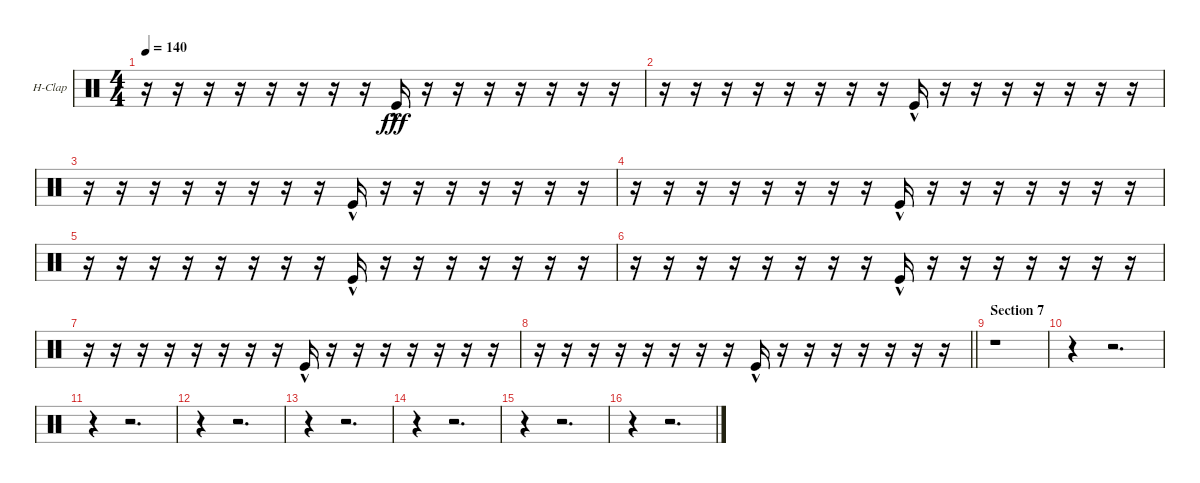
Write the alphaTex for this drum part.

\bracketExtendMode groupsimilarinstruments
\firstSystemTrackNameOrientation horizontal
\otherSystemsTrackNameOrientation horizontal
\track ("Hand Clap" "H-Clap") {instrument percussion}
\staff {score}
\articulation defaults
\ts (4 4)
\tempo 140
\clef neutral
\ks c
r.16{dy fff} r.16 r.16 r.16 r.16 r.16 r.16 r.16 "Kick (hit)"{hac}.16 r.16 r.16 r.16 r.16 r.16 r.16 r.16 |
r.16 r.16 r.16 r.16 r.16 r.16 r.16 r.16 "Kick (hit)"{hac}.16 r.16 r.16 r.16 r.16 r.16 r.16 r.16 |
r.16 r.16 r.16 r.16 r.16 r.16 r.16 r.16 "Kick (hit)"{hac}.16 r.16 r.16 r.16 r.16 r.16 r.16 r.16 |
r.16 r.16 r.16 r.16 r.16 r.16 r.16 r.16 "Kick (hit)"{hac}.16 r.16 r.16 r.16 r.16 r.16 r.16 r.16 |
r.16 r.16 r.16 r.16 r.16 r.16 r.16 r.16 "Kick (hit)"{hac}.16 r.16 r.16 r.16 r.16 r.16 r.16 r.16 |
r.16 r.16 r.16 r.16 r.16 r.16 r.16 r.16 "Kick (hit)"{hac}.16 r.16 r.16 r.16 r.16 r.16 r.16 r.16 |
r.16 r.16 r.16 r.16 r.16 r.16 r.16 r.16 "Kick (hit)"{hac}.16 r.16 r.16 r.16 r.16 r.16 r.16 r.16 |
\barLineRight lightlight
r.16 r.16 r.16 r.16 r.16 r.16 r.16 r.16 "Kick (hit)"{hac}.16 r.16 r.16 r.16 r.16 r.16 r.16 r.16 |
\section ("" "Section 7")
r.1 |
r.4 r.2{d} |
r.4 r.2{d} |
r.4 r.2{d} |
r.4 r.2{d} |
r.4 r.2{d} |
r.4 r.2{d} |
r.4 r.2{d}
